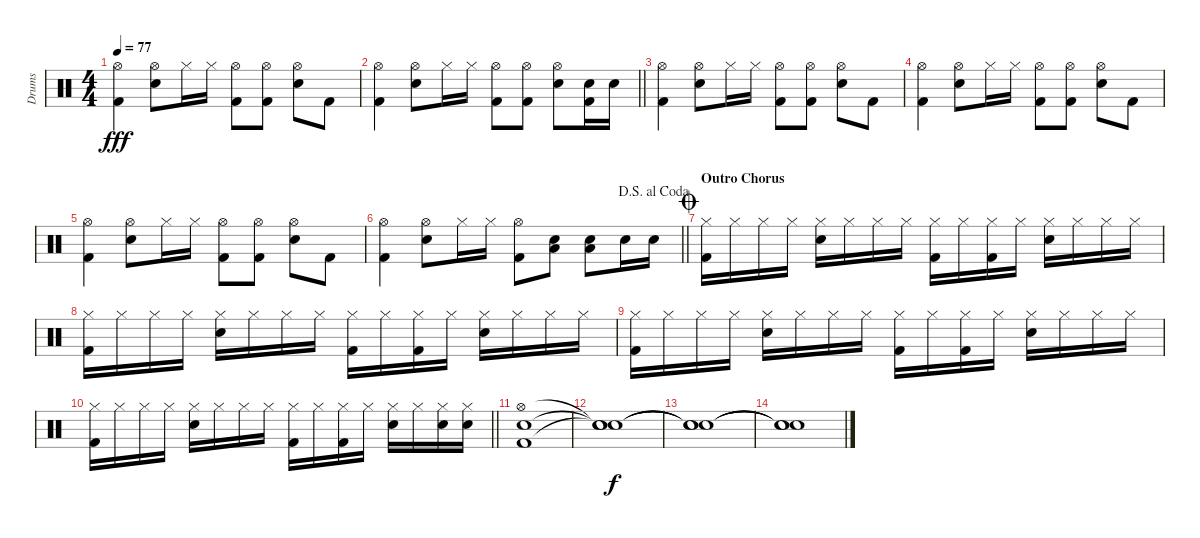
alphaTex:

\track ("Drums" "Drums") {instrument percussion}
\staff {score}
\articulation defaults
\ts (4 4)
\tempo 77
\clef neutral
\ks c
("Hi-Hat (open)" "Kick (hit) 2").4{dy fff} ("Hi-Hat (open)" "Electric Snare (hit)").8 "Hi-Hat (closed)".16 "Hi-Hat (closed)".16 ("Hi-Hat (open)" "Kick (hit) 2").8 ("Hi-Hat (open)" "Kick (hit) 2").8 ("Hi-Hat (open)" "Electric Snare (hit)").8 "Kick (hit) 2".8 |
\barLineRight lightlight
("Hi-Hat (open)" "Kick (hit) 2").4 ("Hi-Hat (open)" "Electric Snare (hit)").8 "Hi-Hat (closed)".16 "Hi-Hat (closed)".16 ("Hi-Hat (open)" "Kick (hit) 2").8 ("Hi-Hat (open)" "Kick (hit) 2").8 ("Hi-Hat (open)" "Electric Snare (hit)").8 ("Electric Snare (hit)" "Kick (hit) 2").16 "Electric Snare (hit)".16 |
("Hi-Hat (open)" "Kick (hit) 2").4 ("Hi-Hat (open)" "Electric Snare (hit)").8 "Hi-Hat (closed)".16 "Hi-Hat (closed)".16 ("Hi-Hat (open)" "Kick (hit) 2").8 ("Hi-Hat (open)" "Kick (hit) 2").8 ("Hi-Hat (open)" "Electric Snare (hit)").8 "Kick (hit) 2".8 |
("Hi-Hat (open)" "Kick (hit) 2").4 ("Hi-Hat (open)" "Electric Snare (hit)").8 "Hi-Hat (closed)".16 "Hi-Hat (closed)".16 ("Hi-Hat (open)" "Kick (hit) 2").8 ("Hi-Hat (open)" "Kick (hit) 2").8 ("Hi-Hat (open)" "Electric Snare (hit)").8 "Kick (hit) 2".8 |
("Hi-Hat (open)" "Kick (hit) 2").4 ("Hi-Hat (open)" "Electric Snare (hit)").8 "Hi-Hat (closed)".16 "Hi-Hat (closed)".16 ("Hi-Hat (open)" "Kick (hit) 2").8 ("Hi-Hat (open)" "Kick (hit) 2").8 ("Hi-Hat (open)" "Electric Snare (hit)").8 "Kick (hit) 2".8 |
\jump dalsegnoalcoda
\barLineRight lightlight
("Hi-Hat (open)" "Kick (hit) 2").4 ("Hi-Hat (open)" "Electric Snare (hit)").8 "Hi-Hat (closed)".16 "Hi-Hat (closed)".16 ("Hi-Hat (open)" "Kick (hit) 2").8 ("Electric Snare (hit)" "Low Tom (hit)").8 ("Electric Snare (hit)" "Low Tom (hit)").8 "Electric Snare (hit)".16 "Electric Snare (hit)".16 |
\section ("" "Outro Chorus")
\jump coda
("Hi-Hat (closed)" "Kick (hit) 2").16 "Hi-Hat (closed)".16 "Hi-Hat (closed)".16 "Hi-Hat (closed)".16 ("Hi-Hat (closed)" "Electric Snare (hit)").16 "Hi-Hat (closed)".16 "Hi-Hat (closed)".16 "Hi-Hat (closed)".16 ("Hi-Hat (closed)" "Kick (hit) 2").16 "Hi-Hat (closed)".16 ("Hi-Hat (closed)" "Kick (hit) 2").16 "Hi-Hat (closed)".16 ("Hi-Hat (closed)" "Electric Snare (hit)").16 "Hi-Hat (closed)".16 "Hi-Hat (closed)".16 "Hi-Hat (closed)".16 |
("Hi-Hat (closed)" "Kick (hit) 2").16 "Hi-Hat (closed)".16 "Hi-Hat (closed)".16 "Hi-Hat (closed)".16 ("Hi-Hat (closed)" "Electric Snare (hit)").16 "Hi-Hat (closed)".16 "Hi-Hat (closed)".16 "Hi-Hat (closed)".16 ("Hi-Hat (closed)" "Kick (hit) 2").16 "Hi-Hat (closed)".16 ("Hi-Hat (closed)" "Kick (hit) 2").16 "Hi-Hat (closed)".16 ("Hi-Hat (closed)" "Electric Snare (hit)").16 "Hi-Hat (closed)".16 "Hi-Hat (closed)".16 "Hi-Hat (closed)".16 |
("Hi-Hat (closed)" "Kick (hit) 2").16 "Hi-Hat (closed)".16 "Hi-Hat (closed)".16 "Hi-Hat (closed)".16 ("Hi-Hat (closed)" "Electric Snare (hit)").16 "Hi-Hat (closed)".16 "Hi-Hat (closed)".16 "Hi-Hat (closed)".16 ("Hi-Hat (closed)" "Kick (hit) 2").16 "Hi-Hat (closed)".16 ("Hi-Hat (closed)" "Kick (hit) 2").16 "Hi-Hat (closed)".16 ("Hi-Hat (closed)" "Electric Snare (hit)").16 "Hi-Hat (closed)".16 "Hi-Hat (closed)".16 "Hi-Hat (closed)".16 |
\barLineRight lightlight
("Hi-Hat (closed)" "Kick (hit) 2").16 "Hi-Hat (closed)".16 "Hi-Hat (closed)".16 "Hi-Hat (closed)".16 ("Hi-Hat (closed)" "Electric Snare (hit)").16 "Hi-Hat (closed)".16 "Hi-Hat (closed)".16 "Hi-Hat (closed)".16 ("Hi-Hat (closed)" "Kick (hit) 2").16 "Hi-Hat (closed)".16 ("Hi-Hat (closed)" "Kick (hit) 2").16 "Hi-Hat (closed)".16 ("Hi-Hat (closed)" "Electric Snare (hit)").16 "Hi-Hat (closed)".16 ("Hi-Hat (closed)" "Electric Snare (hit)").16 ("Hi-Hat (closed)" "Electric Snare (hit)").16 |
("Hi-Hat (open)" "Electric Snare (hit)" "Kick (hit) 2").1 |
("Snare (hit)"{t} "Snare (hit)"{t} "Snare (hit)"{t}).1{dy f} |
("Snare (hit)"{t} "Snare (hit)"{t} "Snare (hit)"{t}).1 |
("Snare (hit)"{t} "Snare (hit)"{t} "Snare (hit)"{t}).1
